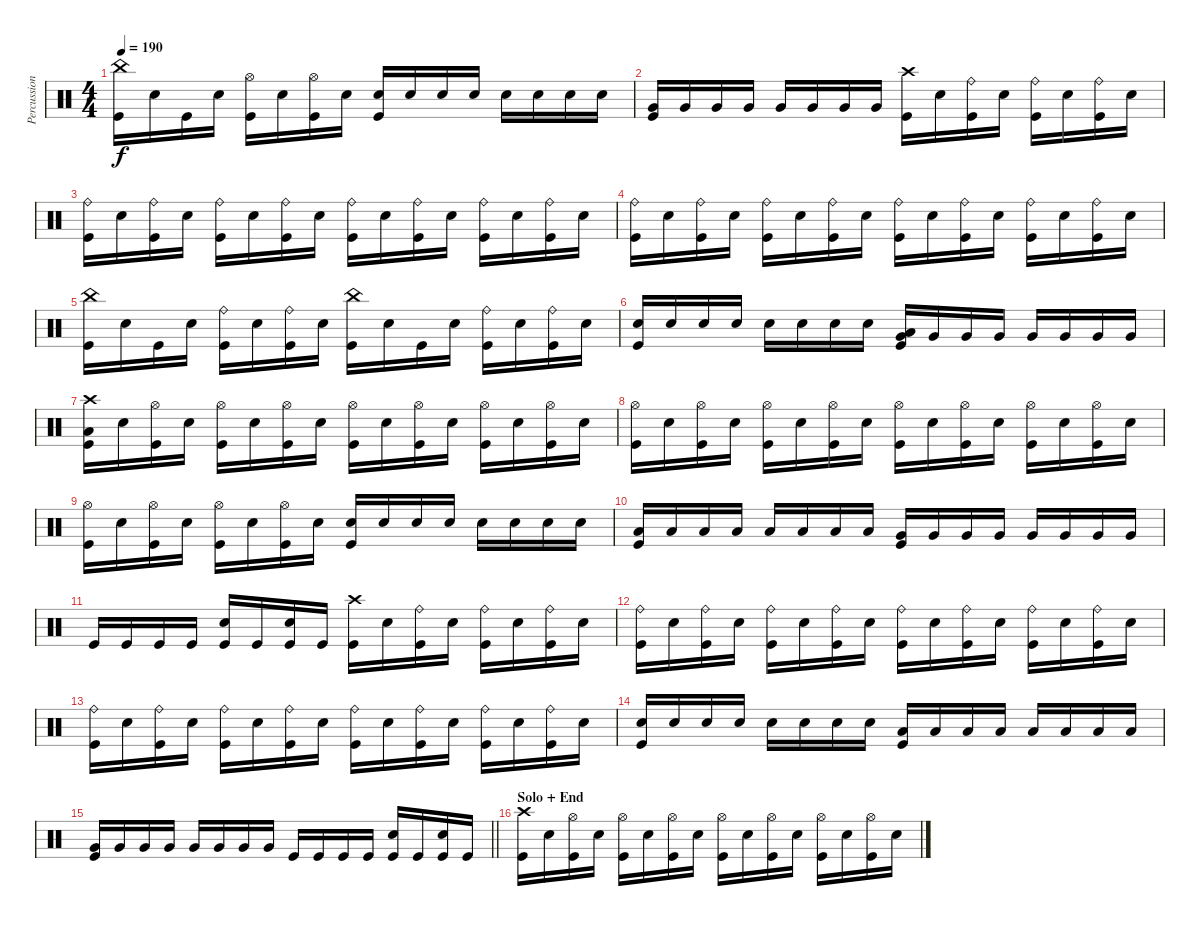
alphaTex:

\track ("Percussion" "Percussion") {instrument percussion}
\staff {score}
\articulation defaults
\ts (4 4)
\tempo 190
\clef neutral
\ks c
("China (hit)" "Kick (hit)").16{dy f} "Snare (hit) 2".16 "Kick (hit)".16 "Snare (hit) 2".16 ("Hi-Hat (open)" "Kick (hit)").16 "Snare (hit) 2".16 ("Hi-Hat (open)" "Kick (hit)").16 "Snare (hit) 2".16 ("Snare (hit) 2" "Kick (hit)").16 "Snare (hit) 2".16 "Snare (hit) 2".16 "Snare (hit) 2".16 "Snare (hit) 2".16 "Snare (hit) 2".16 "Snare (hit) 2".16 "Snare (hit) 2".16 |
("Very Low Tom (hit)" "Kick (hit)").16 "Very Low Tom (hit)".16 "Very Low Tom (hit)".16 "Very Low Tom (hit)".16 "Very Low Tom (hit)".16 "Very Low Tom (hit)".16 "Very Low Tom (hit)".16 "Very Low Tom (hit)".16 ("Crash high (hit)" "Kick (hit)").16 "Snare (hit) 2".16 ("Ride (bell)" "Kick (hit)").16 "Snare (hit) 2".16 ("Ride (bell)" "Kick (hit)").16 "Snare (hit) 2".16 ("Ride (bell)" "Kick (hit)").16 "Snare (hit) 2".16 |
("Ride (bell)" "Kick (hit)").16 "Snare (hit) 2".16 ("Ride (bell)" "Kick (hit)").16 "Snare (hit) 2".16 ("Ride (bell)" "Kick (hit)").16 "Snare (hit) 2".16 ("Ride (bell)" "Kick (hit)").16 "Snare (hit) 2".16 ("Ride (bell)" "Kick (hit)").16 "Snare (hit) 2".16 ("Ride (bell)" "Kick (hit)").16 "Snare (hit) 2".16 ("Ride (bell)" "Kick (hit)").16 "Snare (hit) 2".16 ("Ride (bell)" "Kick (hit)").16 "Snare (hit) 2".16 |
("Ride (bell)" "Kick (hit)").16 "Snare (hit) 2".16 ("Ride (bell)" "Kick (hit)").16 "Snare (hit) 2".16 ("Ride (bell)" "Kick (hit)").16 "Snare (hit) 2".16 ("Ride (bell)" "Kick (hit)").16 "Snare (hit) 2".16 ("Ride (bell)" "Kick (hit)").16 "Snare (hit) 2".16 ("Ride (bell)" "Kick (hit)").16 "Snare (hit) 2".16 ("Ride (bell)" "Kick (hit)").16 "Snare (hit) 2".16 ("Ride (bell)" "Kick (hit)").16 "Snare (hit) 2".16 |
("China (hit)" "Kick (hit)").16 "Snare (hit) 2".16 "Kick (hit)".16 "Snare (hit) 2".16 ("Ride (bell)" "Kick (hit)").16 "Snare (hit) 2".16 ("Ride (bell)" "Kick (hit)").16 "Snare (hit) 2".16 ("China (hit)" "Kick (hit)").16 "Snare (hit) 2".16 "Kick (hit)".16 "Snare (hit) 2".16 ("Ride (bell)" "Kick (hit)").16 "Snare (hit) 2".16 ("Ride (bell)" "Kick (hit)").16 "Snare (hit) 2".16 |
("Snare (hit) 2" "Kick (hit)").16 "Snare (hit) 2".16 "Snare (hit) 2".16 "Snare (hit) 2".16 "Snare (hit) 2".16 "Snare (hit) 2".16 "Snare (hit) 2".16 "Snare (hit) 2".16 ("Low Floor Tom (hit)" "Very Low Tom (hit)" "Kick (hit)").16 "Very Low Tom (hit)".16 "Very Low Tom (hit)".16 "Very Low Tom (hit)".16 "Very Low Tom (hit)".16 "Very Low Tom (hit)".16 "Very Low Tom (hit)".16 "Very Low Tom (hit)".16 |
("Crash high (hit)" "Low Floor Tom (hit)" "Kick (hit)").16 "Snare (hit) 2".16 ("Hi-Hat (open)" "Kick (hit)").16 "Snare (hit) 2".16 ("Hi-Hat (open)" "Kick (hit)").16 "Snare (hit) 2".16 ("Hi-Hat (open)" "Kick (hit)").16 "Snare (hit) 2".16 ("Hi-Hat (open)" "Kick (hit)").16 "Snare (hit) 2".16 ("Hi-Hat (open)" "Kick (hit)").16 "Snare (hit) 2".16 ("Hi-Hat (open)" "Kick (hit)").16 "Snare (hit) 2".16 ("Hi-Hat (open)" "Kick (hit)").16 "Snare (hit) 2".16 |
("Hi-Hat (open)" "Kick (hit)").16 "Snare (hit) 2".16 ("Hi-Hat (open)" "Kick (hit)").16 "Snare (hit) 2".16 ("Hi-Hat (open)" "Kick (hit)").16 "Snare (hit) 2".16 ("Hi-Hat (open)" "Kick (hit)").16 "Snare (hit) 2".16 ("Hi-Hat (open)" "Kick (hit)").16 "Snare (hit) 2".16 ("Hi-Hat (open)" "Kick (hit)").16 "Snare (hit) 2".16 ("Hi-Hat (open)" "Kick (hit)").16 "Snare (hit) 2".16 ("Hi-Hat (open)" "Kick (hit)").16 "Snare (hit) 2".16 |
("Hi-Hat (open)" "Kick (hit)").16 "Snare (hit) 2".16 ("Hi-Hat (open)" "Kick (hit)").16 "Snare (hit) 2".16 ("Hi-Hat (open)" "Kick (hit)").16 "Snare (hit) 2".16 ("Hi-Hat (open)" "Kick (hit)").16 "Snare (hit) 2".16 ("Snare (hit) 2" "Kick (hit)").16 "Snare (hit) 2".16 "Snare (hit) 2".16 "Snare (hit) 2".16 "Snare (hit) 2".16 "Snare (hit) 2".16 "Snare (hit) 2".16 "Snare (hit) 2".16 |
("Low Tom (hit)" "Kick (hit)").16 "Low Tom (hit)".16 "Low Tom (hit)".16 "Low Tom (hit)".16 "Low Tom (hit)".16 "Low Tom (hit)".16 "Low Tom (hit)".16 "Low Tom (hit)".16 ("Very Low Tom (hit)" "Kick (hit)").16 "Very Low Tom (hit)".16 "Very Low Tom (hit)".16 "Very Low Tom (hit)".16 "Very Low Tom (hit)".16 "Very Low Tom (hit)".16 "Very Low Tom (hit)".16 "Very Low Tom (hit)".16 |
"Kick (hit)".16 "Kick (hit)".16 "Kick (hit)".16 "Kick (hit)".16 ("Snare (hit) 2" "Kick (hit)").16 "Kick (hit)".16 ("Snare (hit) 2" "Kick (hit)").16 "Kick (hit)".16 ("Crash high (hit)" "Kick (hit)").16 "Snare (hit) 2".16 ("Ride (bell)" "Kick (hit)").16 "Snare (hit) 2".16 ("Ride (bell)" "Kick (hit)").16 "Snare (hit) 2".16 ("Ride (bell)" "Kick (hit)").16 "Snare (hit) 2".16 |
("Ride (bell)" "Kick (hit)").16 "Snare (hit) 2".16 ("Ride (bell)" "Kick (hit)").16 "Snare (hit) 2".16 ("Ride (bell)" "Kick (hit)").16 "Snare (hit) 2".16 ("Ride (bell)" "Kick (hit)").16 "Snare (hit) 2".16 ("Ride (bell)" "Kick (hit)").16 "Snare (hit) 2".16 ("Ride (bell)" "Kick (hit)").16 "Snare (hit) 2".16 ("Ride (bell)" "Kick (hit)").16 "Snare (hit) 2".16 ("Ride (bell)" "Kick (hit)").16 "Snare (hit) 2".16 |
("Ride (bell)" "Kick (hit)").16 "Snare (hit) 2".16 ("Ride (bell)" "Kick (hit)").16 "Snare (hit) 2".16 ("Ride (bell)" "Kick (hit)").16 "Snare (hit) 2".16 ("Ride (bell)" "Kick (hit)").16 "Snare (hit) 2".16 ("Ride (bell)" "Kick (hit)").16 "Snare (hit) 2".16 ("Ride (bell)" "Kick (hit)").16 "Snare (hit) 2".16 ("Ride (bell)" "Kick (hit)").16 "Snare (hit) 2".16 ("Ride (bell)" "Kick (hit)").16 "Snare (hit) 2".16 |
("Snare (hit) 2" "Kick (hit)").16 "Snare (hit) 2".16 "Snare (hit) 2".16 "Snare (hit) 2".16 "Snare (hit) 2".16 "Snare (hit) 2".16 "Snare (hit) 2".16 "Snare (hit) 2".16 ("Low Tom (hit)" "Kick (hit)").16 "Low Tom (hit)".16 "Low Tom (hit)".16 "Low Tom (hit)".16 "Low Tom (hit)".16 "Low Tom (hit)".16 "Low Tom (hit)".16 "Low Tom (hit)".16 |
\barLineRight lightlight
("Very Low Tom (hit)" "Kick (hit)").16 "Very Low Tom (hit)".16 "Very Low Tom (hit)".16 "Very Low Tom (hit)".16 "Very Low Tom (hit)".16 "Very Low Tom (hit)".16 "Very Low Tom (hit)".16 "Very Low Tom (hit)".16 "Kick (hit)".16 "Kick (hit)".16 "Kick (hit)".16 "Kick (hit)".16 ("Snare (hit) 2" "Kick (hit)").16 "Kick (hit)".16 ("Snare (hit) 2" "Kick (hit)").16 "Kick (hit)".16 |
\section ("" "Solo + End")
("Crash high (hit)" "Kick (hit)").16 "Snare (hit) 2".16 ("Hi-Hat (open)" "Kick (hit)").16 "Snare (hit) 2".16 ("Hi-Hat (open)" "Kick (hit)").16 "Snare (hit) 2".16 ("Hi-Hat (open)" "Kick (hit)").16 "Snare (hit) 2".16 ("Hi-Hat (open)" "Kick (hit)").16 "Snare (hit) 2".16 ("Hi-Hat (open)" "Kick (hit)").16 "Snare (hit) 2".16 ("Hi-Hat (open)" "Kick (hit)").16 "Snare (hit) 2".16 ("Hi-Hat (open)" "Kick (hit)").16 "Snare (hit) 2".16
